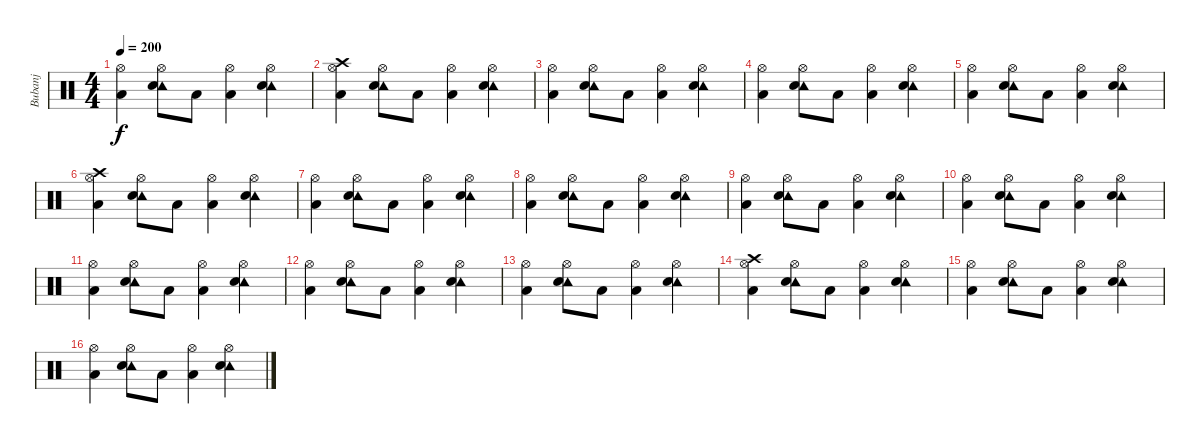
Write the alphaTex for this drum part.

\track ("Bubanj" "Bubanj") {instrument percussion}
\staff {score}
\articulation defaults
\ts (4 4)
\tempo 200
\clef neutral
\ks c
("Hi-Hat (open)" "Low Tom (hit)").4{dy f} ("Hi-Hat (open)" "Tambourine (hit)" "Snare (hit) 2").8 "Low Tom (hit)".8 ("Hi-Hat (open)" "Low Tom (hit)").4 ("Hi-Hat (open)" "Tambourine (hit)" "Snare (hit) 2").4 |
("Hi-Hat (open)" "Crash high (hit)" "Low Tom (hit)").4 ("Hi-Hat (open)" "Tambourine (hit)" "Snare (hit) 2").8 "Low Tom (hit)".8 ("Hi-Hat (open)" "Low Tom (hit)").4 ("Hi-Hat (open)" "Tambourine (hit)" "Snare (hit) 2").4 |
("Hi-Hat (open)" "Low Tom (hit)").4 ("Hi-Hat (open)" "Tambourine (hit)" "Snare (hit) 2").8 "Low Tom (hit)".8 ("Hi-Hat (open)" "Low Tom (hit)").4 ("Hi-Hat (open)" "Tambourine (hit)" "Snare (hit) 2").4 |
("Hi-Hat (open)" "Low Tom (hit)").4 ("Hi-Hat (open)" "Tambourine (hit)" "Snare (hit) 2").8 "Low Tom (hit)".8 ("Hi-Hat (open)" "Low Tom (hit)").4 ("Hi-Hat (open)" "Tambourine (hit)" "Snare (hit) 2").4 |
("Hi-Hat (open)" "Low Tom (hit)").4 ("Hi-Hat (open)" "Tambourine (hit)" "Snare (hit) 2").8 "Low Tom (hit)".8 ("Hi-Hat (open)" "Low Tom (hit)").4 ("Hi-Hat (open)" "Tambourine (hit)" "Snare (hit) 2").4 |
("Hi-Hat (open)" "Crash high (hit)" "Low Tom (hit)").4 ("Hi-Hat (open)" "Tambourine (hit)" "Snare (hit) 2").8 "Low Tom (hit)".8 ("Hi-Hat (open)" "Low Tom (hit)").4 ("Hi-Hat (open)" "Tambourine (hit)" "Snare (hit) 2").4 |
("Hi-Hat (open)" "Low Tom (hit)").4 ("Hi-Hat (open)" "Tambourine (hit)" "Snare (hit) 2").8 "Low Tom (hit)".8 ("Hi-Hat (open)" "Low Tom (hit)").4 ("Hi-Hat (open)" "Tambourine (hit)" "Snare (hit) 2").4 |
("Hi-Hat (open)" "Low Tom (hit)").4 ("Hi-Hat (open)" "Tambourine (hit)" "Snare (hit) 2").8 "Low Tom (hit)".8 ("Hi-Hat (open)" "Low Tom (hit)").4 ("Hi-Hat (open)" "Tambourine (hit)" "Snare (hit) 2").4 |
("Hi-Hat (open)" "Low Tom (hit)").4 ("Hi-Hat (open)" "Tambourine (hit)" "Snare (hit) 2").8 "Low Tom (hit)".8 ("Hi-Hat (open)" "Low Tom (hit)").4 ("Hi-Hat (open)" "Tambourine (hit)" "Snare (hit) 2").4 |
("Hi-Hat (open)" "Low Tom (hit)").4 ("Hi-Hat (open)" "Tambourine (hit)" "Snare (hit) 2").8 "Low Tom (hit)".8 ("Hi-Hat (open)" "Low Tom (hit)").4 ("Hi-Hat (open)" "Tambourine (hit)" "Snare (hit) 2").4 |
("Hi-Hat (open)" "Low Tom (hit)").4 ("Hi-Hat (open)" "Tambourine (hit)" "Snare (hit) 2").8 "Low Tom (hit)".8 ("Hi-Hat (open)" "Low Tom (hit)").4 ("Hi-Hat (open)" "Tambourine (hit)" "Snare (hit) 2").4 |
("Hi-Hat (open)" "Low Tom (hit)").4 ("Hi-Hat (open)" "Tambourine (hit)" "Snare (hit) 2").8 "Low Tom (hit)".8 ("Hi-Hat (open)" "Low Tom (hit)").4 ("Hi-Hat (open)" "Tambourine (hit)" "Snare (hit) 2").4 |
("Hi-Hat (open)" "Low Tom (hit)").4 ("Hi-Hat (open)" "Tambourine (hit)" "Snare (hit) 2").8 "Low Tom (hit)".8 ("Hi-Hat (open)" "Low Tom (hit)").4 ("Hi-Hat (open)" "Tambourine (hit)" "Snare (hit) 2").4 |
("Hi-Hat (open)" "Crash high (hit)" "Low Tom (hit)").4 ("Hi-Hat (open)" "Tambourine (hit)" "Snare (hit) 2").8 "Low Tom (hit)".8 ("Hi-Hat (open)" "Low Tom (hit)").4 ("Hi-Hat (open)" "Tambourine (hit)" "Snare (hit) 2").4 |
("Hi-Hat (open)" "Low Tom (hit)").4 ("Hi-Hat (open)" "Tambourine (hit)" "Snare (hit) 2").8 "Low Tom (hit)".8 ("Hi-Hat (open)" "Low Tom (hit)").4 ("Hi-Hat (open)" "Tambourine (hit)" "Snare (hit) 2").4 |
("Hi-Hat (open)" "Low Tom (hit)").4 ("Hi-Hat (open)" "Tambourine (hit)" "Snare (hit) 2").8 "Low Tom (hit)".8 ("Hi-Hat (open)" "Low Tom (hit)").4 ("Hi-Hat (open)" "Tambourine (hit)" "Snare (hit) 2").4
